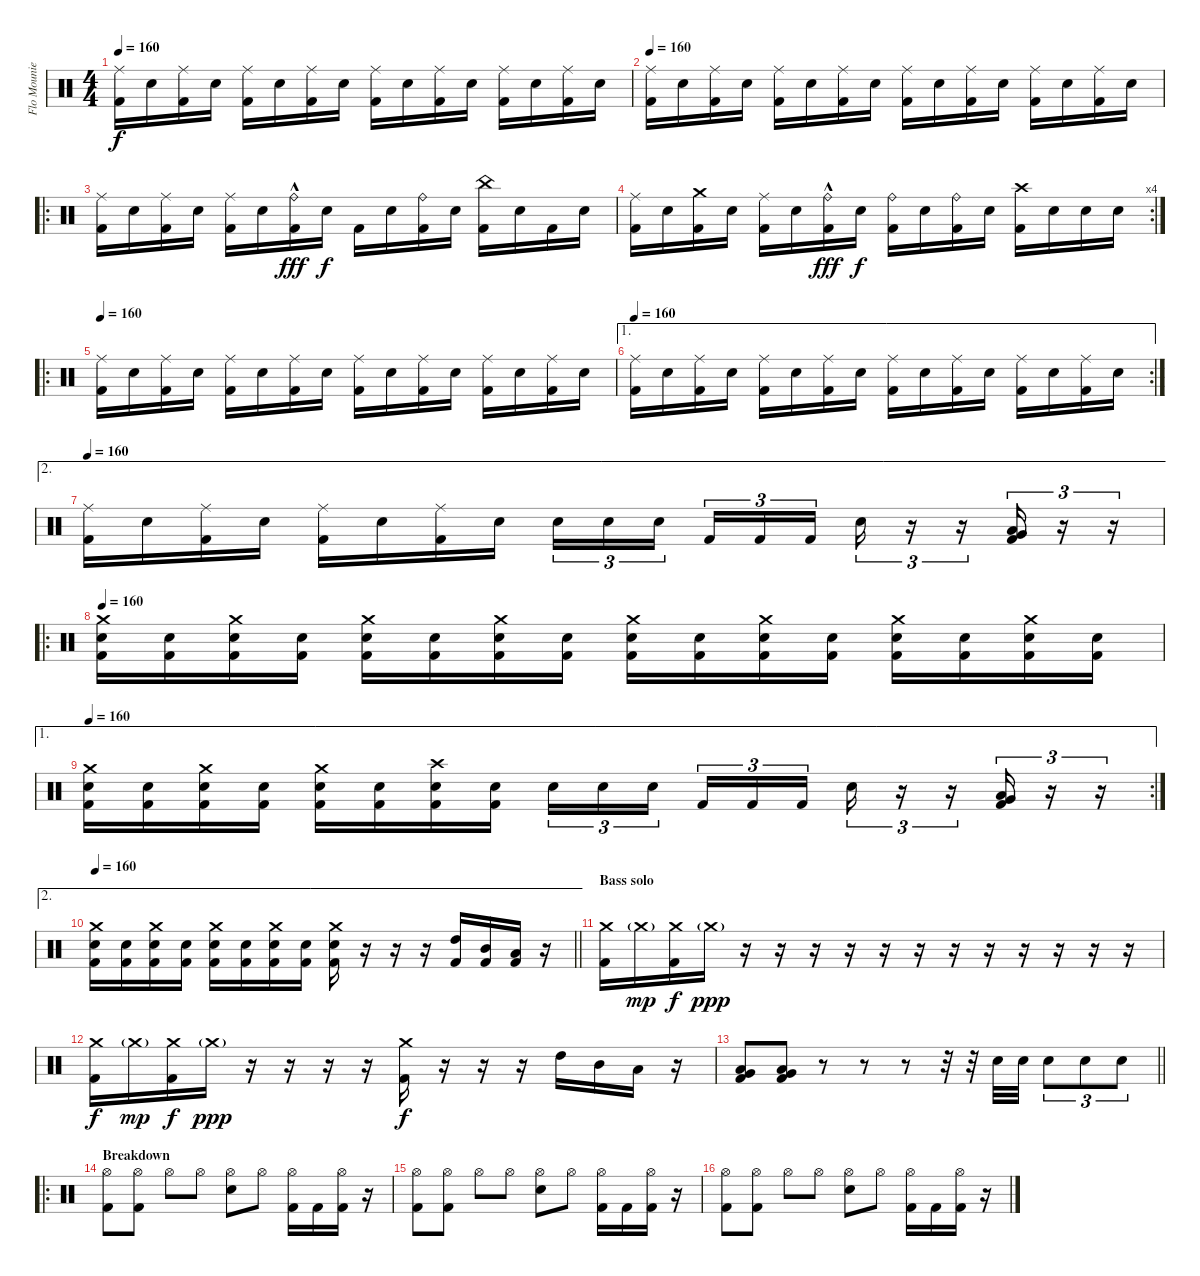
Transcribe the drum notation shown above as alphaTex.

\track ("Flo Mounier" "Flo Mounie") {instrument percussion}
\staff {score}
\articulation defaults
\ts (4 4)
\tempo 160
\clef neutral
\ks c
("Ride (middle)" "Kick (hit) 2").16{dy f} "Electric Snare (hit)".16 ("Ride (middle)" "Kick (hit) 2").16 "Electric Snare (hit)".16 ("Ride (middle)" "Kick (hit) 2").16 "Electric Snare (hit)".16 ("Ride (middle)" "Kick (hit) 2").16 "Electric Snare (hit)".16 ("Ride (middle)" "Kick (hit) 2").16 "Electric Snare (hit)".16 ("Ride (middle)" "Kick (hit) 2").16 "Electric Snare (hit)".16 ("Ride (middle)" "Kick (hit) 2").16 "Electric Snare (hit)".16 ("Ride (middle)" "Kick (hit) 2").16 "Electric Snare (hit)".16 |
\tempo 160
("Ride (middle)" "Kick (hit) 2").16 "Electric Snare (hit)".16 ("Ride (middle)" "Kick (hit) 2").16 "Electric Snare (hit)".16 ("Ride (middle)" "Kick (hit) 2").16 "Electric Snare (hit)".16 ("Ride (middle)" "Kick (hit) 2").16 "Electric Snare (hit)".16 ("Ride (middle)" "Kick (hit) 2").16 "Electric Snare (hit)".16 ("Ride (middle)" "Kick (hit) 2").16 "Electric Snare (hit)".16 ("Ride (middle)" "Kick (hit) 2").16 "Electric Snare (hit)".16 ("Ride (middle)" "Kick (hit) 2").16 "Electric Snare (hit)".16 |
\ro
("Ride (middle)" "Kick (hit) 2").16 "Electric Snare (hit)".16 ("Ride (middle)" "Kick (hit) 2").16 "Electric Snare (hit)".16 ("Ride (middle)" "Kick (hit) 2").16 "Electric Snare (hit)".16 ("Ride (bell)"{hac} "Kick (hit) 2").16{dy fff} "Electric Snare (hit)".16{dy f} "Kick (hit) 2".16 "Electric Snare (hit)".16 ("Ride (bell)" "Kick (hit) 2").16 "Electric Snare (hit)".16 ("China (hit)" "Kick (hit) 2").16 "Electric Snare (hit)".16 "Kick (hit) 2".16 "Electric Snare (hit)".16 |
\rc 4
("Ride (middle)" "Kick (hit) 2").16 "Electric Snare (hit)".16 ("Crash medium (hit)" "Kick (hit) 2").16 "Electric Snare (hit)".16 ("Ride (middle)" "Kick (hit) 2").16 "Electric Snare (hit)".16 ("Ride (bell)"{hac} "Kick (hit) 2").16{dy fff} "Electric Snare (hit)".16{dy f} ("Ride (bell)" "Kick (hit) 2").16 "Electric Snare (hit)".16 ("Ride (bell)" "Kick (hit) 2").16 "Electric Snare (hit)".16 ("Crash high (hit)" "Kick (hit) 2").16 "Electric Snare (hit)".16 "Electric Snare (hit)".16 "Electric Snare (hit)".16 |
\ro
\tempo 160
("Ride (middle)" "Kick (hit) 2").16 "Electric Snare (hit)".16 ("Ride (middle)" "Kick (hit) 2").16 "Electric Snare (hit)".16 ("Ride (middle)" "Kick (hit) 2").16 "Electric Snare (hit)".16 ("Ride (middle)" "Kick (hit) 2").16 "Electric Snare (hit)".16 ("Ride (middle)" "Kick (hit) 2").16 "Electric Snare (hit)".16 ("Ride (middle)" "Kick (hit) 2").16 "Electric Snare (hit)".16 ("Ride (middle)" "Kick (hit) 2").16 "Electric Snare (hit)".16 ("Ride (middle)" "Kick (hit) 2").16 "Electric Snare (hit)".16 |
\ae 1
\rc 2
\tempo 160
("Ride (middle)" "Kick (hit) 2").16 "Electric Snare (hit)".16 ("Ride (middle)" "Kick (hit) 2").16 "Electric Snare (hit)".16 ("Ride (middle)" "Kick (hit) 2").16 "Electric Snare (hit)".16 ("Ride (middle)" "Kick (hit) 2").16 "Electric Snare (hit)".16 ("Ride (middle)" "Kick (hit) 2").16 "Electric Snare (hit)".16 ("Ride (middle)" "Kick (hit) 2").16 "Electric Snare (hit)".16 ("Ride (middle)" "Kick (hit) 2").16 "Electric Snare (hit)".16 ("Ride (middle)" "Kick (hit) 2").16 "Electric Snare (hit)".16 |
\ae 2
\tempo 160
("Ride (middle)" "Kick (hit) 2").16 "Electric Snare (hit)".16 ("Ride (middle)" "Kick (hit) 2").16 "Electric Snare (hit)".16 ("Ride (middle)" "Kick (hit) 2").16 "Electric Snare (hit)".16 ("Ride (middle)" "Kick (hit) 2").16 "Electric Snare (hit)".16 "Electric Snare (hit)".16{tu (3 2)} "Electric Snare (hit)".16{tu (3 2)} "Electric Snare (hit)".16{tu (3 2) beam splitsecondary} "Kick (hit) 2".16{tu (3 2)} "Kick (hit) 2".16{tu (3 2)} "Kick (hit) 2".16{tu (3 2)} "Electric Snare (hit)".16{tu (3 2)} r.16{tu (3 2)} r.16{tu (3 2)} ("Very Low Tom (hit)" "Low Tom (hit)" "Kick (hit) 2").16{tu (3 2)} r.16{tu (3 2)} r.16{tu (3 2)} |
\ro
\tempo 160
("Crash medium (hit)" "Electric Snare (hit)" "Kick (hit) 2").16 ("Electric Snare (hit)" "Kick (hit) 2").16 ("Crash medium (hit)" "Electric Snare (hit)" "Kick (hit) 2").16 ("Electric Snare (hit)" "Kick (hit) 2").16 ("Crash medium (hit)" "Electric Snare (hit)" "Kick (hit) 2").16 ("Electric Snare (hit)" "Kick (hit) 2").16 ("Crash medium (hit)" "Electric Snare (hit)" "Kick (hit) 2").16 ("Electric Snare (hit)" "Kick (hit) 2").16 ("Crash medium (hit)" "Electric Snare (hit)" "Kick (hit) 2").16 ("Electric Snare (hit)" "Kick (hit) 2").16 ("Crash medium (hit)" "Electric Snare (hit)" "Kick (hit) 2").16 ("Electric Snare (hit)" "Kick (hit) 2").16 ("Crash medium (hit)" "Electric Snare (hit)" "Kick (hit) 2").16 ("Electric Snare (hit)" "Kick (hit) 2").16 ("Crash medium (hit)" "Electric Snare (hit)" "Kick (hit) 2").16 ("Electric Snare (hit)" "Kick (hit) 2").16 |
\ae 1
\rc 2
\tempo 160
("Crash medium (hit)" "Electric Snare (hit)" "Kick (hit) 2").16 ("Electric Snare (hit)" "Kick (hit) 2").16 ("Crash medium (hit)" "Electric Snare (hit)" "Kick (hit) 2").16 ("Electric Snare (hit)" "Kick (hit) 2").16 ("Crash medium (hit)" "Electric Snare (hit)" "Kick (hit) 2").16 ("Electric Snare (hit)" "Kick (hit) 2").16 ("Crash high (hit)" "Electric Snare (hit)" "Kick (hit) 2").16 ("Electric Snare (hit)" "Kick (hit) 2").16 "Electric Snare (hit)".16{tu (3 2)} "Electric Snare (hit)".16{tu (3 2)} "Electric Snare (hit)".16{tu (3 2) beam splitsecondary} "Kick (hit) 2".16{tu (3 2)} "Kick (hit) 2".16{tu (3 2)} "Kick (hit) 2".16{tu (3 2)} "Electric Snare (hit)".16{tu (3 2)} r.16{tu (3 2)} r.16{tu (3 2)} ("Very Low Tom (hit)" "Low Tom (hit)" "Kick (hit) 2").16{tu (3 2)} r.16{tu (3 2)} r.16{tu (3 2)} |
\ae 2
\tempo 160
\barLineRight lightlight
("Crash medium (hit)" "Electric Snare (hit)" "Kick (hit) 2").16 ("Electric Snare (hit)" "Kick (hit) 2").16 ("Crash medium (hit)" "Electric Snare (hit)" "Kick (hit) 2").16 ("Electric Snare (hit)" "Kick (hit) 2").16 ("Crash medium (hit)" "Electric Snare (hit)" "Kick (hit) 2").16 ("Electric Snare (hit)" "Kick (hit) 2").16 ("Crash medium (hit)" "Electric Snare (hit)" "Kick (hit) 2").16 ("Electric Snare (hit)" "Kick (hit) 2").16 ("Crash medium (hit)" "Electric Snare (hit)" "Kick (hit) 2").16 r.16 r.16 r.16 ("High Tom (hit)" "Kick (hit) 2").16 ("Mid Tom (hit)" "Kick (hit) 2").16 ("Low Tom (hit)" "Kick (hit) 2").16 r.16 |
\section ("" "Bass solo ")
("Crash medium (hit)" "Kick (hit) 2").16 "Crash medium (hit)"{g}.16{dy mp} ("Crash medium (hit)" "Kick (hit) 2").16{dy f} "Crash medium (hit)"{g}.16{dy ppp} r.16 r.16 r.16 r.16 r.16 r.16 r.16 r.16 r.16 r.16 r.16 r.16 |
("Crash medium (hit)" "Kick (hit) 2").16{dy f} "Crash medium (hit)"{g}.16{dy mp} ("Crash medium (hit)" "Kick (hit) 2").16{dy f} "Crash medium (hit)"{g}.16{dy ppp} r.16 r.16 r.16 r.16 ("Crash medium (hit)" "Kick (hit) 2").16{dy f} r.16 r.16 r.16 "High Tom (hit)".16 "Mid Tom (hit)".16 "Low Tom (hit)".16 r.16 |
\barLineRight lightlight
("Low Tom (hit)" "Very Low Tom (hit)" "Kick (hit) 2").8 ("Low Tom (hit)" "Very Low Tom (hit)" "Kick (hit) 2").8 r.8 r.8 r.8 r.32 r.32 "Electric Snare (hit)".32 "Electric Snare (hit)".32 "Electric Snare (hit)".8{tu (3 2)} "Electric Snare (hit)".8{tu (3 2)} "Electric Snare (hit)".8{tu (3 2)} |
\ro
\section ("" "Breakdown")
("Hi-Hat (open)" "Kick (hit) 2").8 ("Hi-Hat (open)" "Kick (hit) 2").8 "Hi-Hat (open)".8 "Hi-Hat (open)".8 ("Hi-Hat (open)" "Electric Snare (hit)").8 "Hi-Hat (open)".8 ("Hi-Hat (open)" "Kick (hit) 2").16 "Kick (hit) 2".16 ("Hi-Hat (open)" "Kick (hit) 2").16 r.16 |
("Hi-Hat (open)" "Kick (hit) 2").8 ("Hi-Hat (open)" "Kick (hit) 2").8 "Hi-Hat (open)".8 "Hi-Hat (open)".8 ("Hi-Hat (open)" "Electric Snare (hit)").8 "Hi-Hat (open)".8 ("Hi-Hat (open)" "Kick (hit) 2").16 "Kick (hit) 2".16 ("Hi-Hat (open)" "Kick (hit) 2").16 r.16 |
("Hi-Hat (open)" "Kick (hit) 2").8 ("Hi-Hat (open)" "Kick (hit) 2").8 "Hi-Hat (open)".8 "Hi-Hat (open)".8 ("Hi-Hat (open)" "Electric Snare (hit)").8 "Hi-Hat (open)".8 ("Hi-Hat (open)" "Kick (hit) 2").16 "Kick (hit) 2".16 ("Hi-Hat (open)" "Kick (hit) 2").16 r.16
